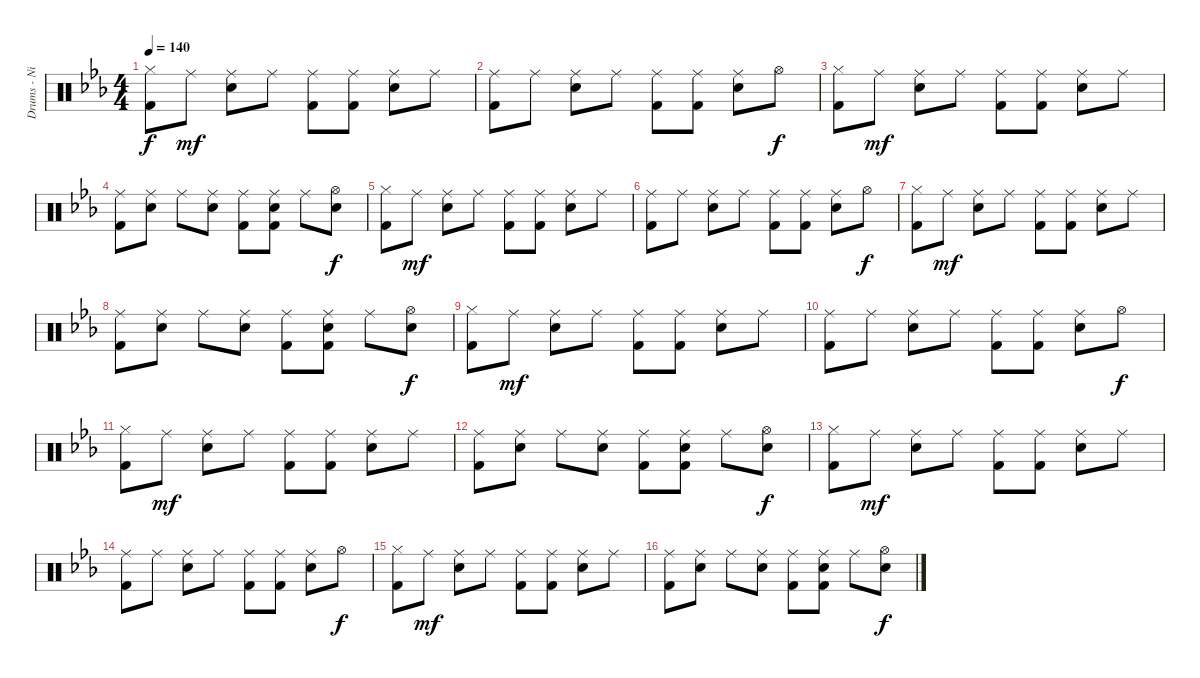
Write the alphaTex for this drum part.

\track ("Drums - Nigel Olsen" "Drums - Ni") {instrument percussion}
\staff {score}
\articulation defaults
\ts (4 4)
\tempo 140
\clef neutral
\ks cminor
("Hi-Hat (closed)" "Kick (hit) 2").8{dy f} "Ride (middle)".8{dy mf} ("Ride (middle)" "Snare (hit) 2").8 "Ride (middle)".8 ("Ride (middle)" "Kick (hit) 2").8 ("Ride (middle)" "Kick (hit) 2").8 ("Ride (middle)" "Snare (hit) 2").8 "Ride (middle)".8 |
("Ride (middle)" "Kick (hit) 2").8 "Ride (middle)".8 ("Ride (middle)" "Snare (hit) 2").8 "Ride (middle)".8 ("Ride (middle)" "Kick (hit) 2").8 ("Ride (middle)" "Kick (hit) 2").8 ("Ride (middle)" "Snare (hit) 2").8 "Hi-Hat (open)".8{dy f} |
("Hi-Hat (closed)" "Kick (hit) 2").8 "Ride (middle)".8{dy mf} ("Ride (middle)" "Snare (hit) 2").8 "Ride (middle)".8 ("Ride (middle)" "Kick (hit) 2").8 ("Ride (middle)" "Kick (hit) 2").8 ("Ride (middle)" "Snare (hit) 2").8 "Ride (middle)".8 |
("Ride (middle)" "Kick (hit) 2").8 ("Ride (middle)" "Snare (hit) 2").8 "Ride (middle)".8 ("Ride (middle)" "Snare (hit) 2").8 ("Ride (middle)" "Kick (hit) 2").8 ("Ride (middle)" "Snare (hit) 2" "Kick (hit) 2").8 "Ride (middle)".8 ("Hi-Hat (open)" "Snare (hit) 2").8{dy f} |
("Hi-Hat (closed)" "Kick (hit) 2").8 "Ride (middle)".8{dy mf} ("Ride (middle)" "Snare (hit) 2").8 "Ride (middle)".8 ("Ride (middle)" "Kick (hit) 2").8 ("Ride (middle)" "Kick (hit) 2").8 ("Ride (middle)" "Snare (hit) 2").8 "Ride (middle)".8 |
("Ride (middle)" "Kick (hit) 2").8 "Ride (middle)".8 ("Ride (middle)" "Snare (hit) 2").8 "Ride (middle)".8 ("Ride (middle)" "Kick (hit) 2").8 ("Ride (middle)" "Kick (hit) 2").8 ("Ride (middle)" "Snare (hit) 2").8 "Hi-Hat (open)".8{dy f} |
("Hi-Hat (closed)" "Kick (hit) 2").8 "Ride (middle)".8{dy mf} ("Ride (middle)" "Snare (hit) 2").8 "Ride (middle)".8 ("Ride (middle)" "Kick (hit) 2").8 ("Ride (middle)" "Kick (hit) 2").8 ("Ride (middle)" "Snare (hit) 2").8 "Ride (middle)".8 |
("Ride (middle)" "Kick (hit) 2").8 ("Ride (middle)" "Snare (hit) 2").8 "Ride (middle)".8 ("Ride (middle)" "Snare (hit) 2").8 ("Ride (middle)" "Kick (hit) 2").8 ("Ride (middle)" "Snare (hit) 2" "Kick (hit) 2").8 "Ride (middle)".8 ("Hi-Hat (open)" "Snare (hit) 2").8{dy f} |
("Hi-Hat (closed)" "Kick (hit) 2").8 "Ride (middle)".8{dy mf} ("Ride (middle)" "Snare (hit) 2").8 "Ride (middle)".8 ("Ride (middle)" "Kick (hit) 2").8 ("Ride (middle)" "Kick (hit) 2").8 ("Ride (middle)" "Snare (hit) 2").8 "Ride (middle)".8 |
("Ride (middle)" "Kick (hit) 2").8 "Ride (middle)".8 ("Ride (middle)" "Snare (hit) 2").8 "Ride (middle)".8 ("Ride (middle)" "Kick (hit) 2").8 ("Ride (middle)" "Kick (hit) 2").8 ("Ride (middle)" "Snare (hit) 2").8 "Hi-Hat (open)".8{dy f} |
("Hi-Hat (closed)" "Kick (hit) 2").8 "Ride (middle)".8{dy mf} ("Ride (middle)" "Snare (hit) 2").8 "Ride (middle)".8 ("Ride (middle)" "Kick (hit) 2").8 ("Ride (middle)" "Kick (hit) 2").8 ("Ride (middle)" "Snare (hit) 2").8 "Ride (middle)".8 |
("Ride (middle)" "Kick (hit) 2").8 ("Ride (middle)" "Snare (hit) 2").8 "Ride (middle)".8 ("Ride (middle)" "Snare (hit) 2").8 ("Ride (middle)" "Kick (hit) 2").8 ("Ride (middle)" "Snare (hit) 2" "Kick (hit) 2").8 "Ride (middle)".8 ("Hi-Hat (open)" "Snare (hit) 2").8{dy f} |
("Hi-Hat (closed)" "Kick (hit) 2").8 "Ride (middle)".8{dy mf} ("Ride (middle)" "Snare (hit) 2").8 "Ride (middle)".8 ("Ride (middle)" "Kick (hit) 2").8 ("Ride (middle)" "Kick (hit) 2").8 ("Ride (middle)" "Snare (hit) 2").8 "Ride (middle)".8 |
("Ride (middle)" "Kick (hit) 2").8 "Ride (middle)".8 ("Ride (middle)" "Snare (hit) 2").8 "Ride (middle)".8 ("Ride (middle)" "Kick (hit) 2").8 ("Ride (middle)" "Kick (hit) 2").8 ("Ride (middle)" "Snare (hit) 2").8 "Hi-Hat (open)".8{dy f} |
("Hi-Hat (closed)" "Kick (hit) 2").8 "Ride (middle)".8{dy mf} ("Ride (middle)" "Snare (hit) 2").8 "Ride (middle)".8 ("Ride (middle)" "Kick (hit) 2").8 ("Ride (middle)" "Kick (hit) 2").8 ("Ride (middle)" "Snare (hit) 2").8 "Ride (middle)".8 |
("Ride (middle)" "Kick (hit) 2").8 ("Ride (middle)" "Snare (hit) 2").8 "Ride (middle)".8 ("Ride (middle)" "Snare (hit) 2").8 ("Ride (middle)" "Kick (hit) 2").8 ("Ride (middle)" "Snare (hit) 2" "Kick (hit) 2").8 "Ride (middle)".8 ("Hi-Hat (open)" "Snare (hit) 2").8{dy f}
